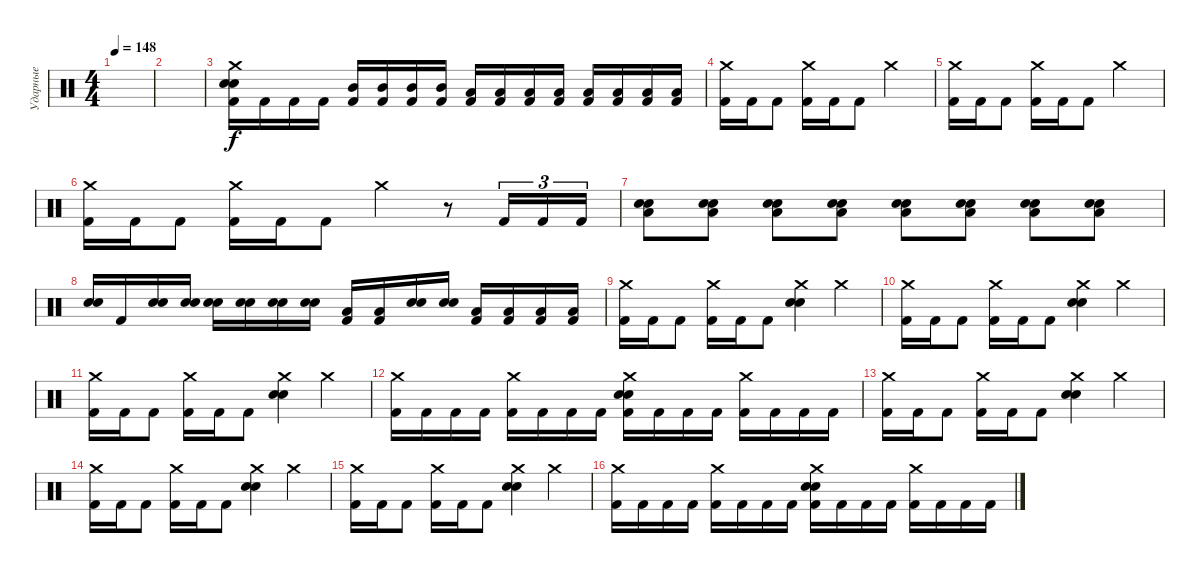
\track ("Ударные" "Ударные") {instrument percussion}
\staff {score}
\articulation defaults
\ts (4 4)
\tempo 148
\clef neutral
\ks c
|
|
("Crash medium (hit)" "Snare (hit) 2" "Electric Snare (hit)" "Kick (hit) 2").16 "Kick (hit) 2".16 "Kick (hit) 2".16 "Kick (hit) 2".16 ("Mid Tom (hit)" "Kick (hit) 2").16 ("Mid Tom (hit)" "Kick (hit) 2").16 ("Mid Tom (hit)" "Kick (hit) 2").16 ("Mid Tom (hit)" "Kick (hit) 2").16 ("Low Tom (hit)" "Kick (hit) 2").16 ("Low Tom (hit)" "Kick (hit) 2").16 ("Low Tom (hit)" "Kick (hit) 2").16 ("Low Tom (hit)" "Kick (hit) 2").16 ("Low Floor Tom (hit)" "Kick (hit) 2").16 ("Low Floor Tom (hit)" "Kick (hit) 2").16 ("Low Floor Tom (hit)" "Kick (hit) 2").16 ("Low Floor Tom (hit)" "Kick (hit) 2").16 |
("Crash medium (hit)" "Kick (hit) 2").16 "Kick (hit) 2".16 "Kick (hit) 2".8 ("Crash medium (hit)" "Kick (hit) 2").16 "Kick (hit) 2".16 "Kick (hit) 2".8 "Crash medium (hit)".2 |
("Crash medium (hit)" "Kick (hit) 2").16 "Kick (hit) 2".16 "Kick (hit) 2".8 ("Crash medium (hit)" "Kick (hit) 2").16 "Kick (hit) 2".16 "Kick (hit) 2".8 "Crash medium (hit)".2 |
("Crash medium (hit)" "Kick (hit) 2").16 "Kick (hit) 2".16 "Kick (hit) 2".8 ("Crash medium (hit)" "Kick (hit) 2").16 "Kick (hit) 2".16 "Kick (hit) 2".8 "Crash medium (hit)".4 r.8 "Kick (hit) 2".16{tu (3 2)} "Kick (hit) 2".16{tu (3 2)} "Kick (hit) 2".16{tu (3 2)} |
("Snare (hit) 2" "Low Floor Tom (hit)" "Electric Snare (hit)").8 ("Snare (hit) 2" "Low Floor Tom (hit)" "Electric Snare (hit)").8 ("Snare (hit) 2" "Low Floor Tom (hit)" "Electric Snare (hit)").8 ("Snare (hit) 2" "Low Floor Tom (hit)" "Electric Snare (hit)").8 ("Snare (hit) 2" "Low Floor Tom (hit)" "Electric Snare (hit)").8 ("Snare (hit) 2" "Low Floor Tom (hit)" "Electric Snare (hit)").8 ("Snare (hit) 2" "Low Floor Tom (hit)" "Electric Snare (hit)").8 ("Snare (hit) 2" "Low Floor Tom (hit)" "Electric Snare (hit)").8 |
("Electric Snare (hit)" "Snare (hit) 2").16 "Kick (hit) 2".16 ("Electric Snare (hit)" "Snare (hit) 2").16 ("Electric Snare (hit)" "Snare (hit) 2").16 ("Electric Snare (hit)" "Snare (hit) 2").16 ("Electric Snare (hit)" "Snare (hit) 2").16 ("Electric Snare (hit)" "Snare (hit) 2").16 ("Electric Snare (hit)" "Snare (hit) 2").16 ("Low Tom (hit)" "Kick (hit) 2").16 ("Low Tom (hit)" "Kick (hit) 2").16 ("Electric Snare (hit)" "Snare (hit) 2").16 ("Electric Snare (hit)" "Snare (hit) 2").16 ("Low Tom (hit)" "Kick (hit) 2").16 ("Low Tom (hit)" "Kick (hit) 2").16 ("Low Tom (hit)" "Kick (hit) 2").16 ("Low Tom (hit)" "Kick (hit) 2").16 |
("Crash medium (hit)" "Kick (hit) 2").16 "Kick (hit) 2".16 "Kick (hit) 2".8 ("Crash medium (hit)" "Kick (hit) 2").16 "Kick (hit) 2".16 "Kick (hit) 2".8 ("Crash medium (hit)" "Electric Snare (hit)" "Snare (hit) 2").4 "Crash medium (hit)".4 |
("Crash medium (hit)" "Kick (hit) 2").16 "Kick (hit) 2".16 "Kick (hit) 2".8 ("Crash medium (hit)" "Kick (hit) 2").16 "Kick (hit) 2".16 "Kick (hit) 2".8 ("Crash medium (hit)" "Electric Snare (hit)" "Snare (hit) 2").4 "Crash medium (hit)".4 |
("Crash medium (hit)" "Kick (hit) 2").16 "Kick (hit) 2".16 "Kick (hit) 2".8 ("Crash medium (hit)" "Kick (hit) 2").16 "Kick (hit) 2".16 "Kick (hit) 2".8 ("Crash medium (hit)" "Electric Snare (hit)" "Snare (hit) 2").4 "Crash medium (hit)".4 |
("Crash medium (hit)" "Kick (hit) 2").16 "Kick (hit) 2".16 "Kick (hit) 2".16 "Kick (hit) 2".16 ("Crash medium (hit)" "Kick (hit) 2").16 "Kick (hit) 2".16 "Kick (hit) 2".16 "Kick (hit) 2".16 ("Crash medium (hit)" "Snare (hit) 2" "Electric Snare (hit)" "Kick (hit) 2").16 "Kick (hit) 2".16 "Kick (hit) 2".16 "Kick (hit) 2".16 ("Crash medium (hit)" "Kick (hit) 2").16 "Kick (hit) 2".16 "Kick (hit) 2".16 "Kick (hit) 2".16 |
("Crash medium (hit)" "Kick (hit) 2").16 "Kick (hit) 2".16 "Kick (hit) 2".8 ("Crash medium (hit)" "Kick (hit) 2").16 "Kick (hit) 2".16 "Kick (hit) 2".8 ("Crash medium (hit)" "Electric Snare (hit)" "Snare (hit) 2").4 "Crash medium (hit)".4 |
("Crash medium (hit)" "Kick (hit) 2").16 "Kick (hit) 2".16 "Kick (hit) 2".8 ("Crash medium (hit)" "Kick (hit) 2").16 "Kick (hit) 2".16 "Kick (hit) 2".8 ("Crash medium (hit)" "Electric Snare (hit)" "Snare (hit) 2").4 "Crash medium (hit)".4 |
("Crash medium (hit)" "Kick (hit) 2").16 "Kick (hit) 2".16 "Kick (hit) 2".8 ("Crash medium (hit)" "Kick (hit) 2").16 "Kick (hit) 2".16 "Kick (hit) 2".8 ("Crash medium (hit)" "Electric Snare (hit)" "Snare (hit) 2").4 "Crash medium (hit)".4 |
("Crash medium (hit)" "Kick (hit) 2").16 "Kick (hit) 2".16 "Kick (hit) 2".16 "Kick (hit) 2".16 ("Crash medium (hit)" "Kick (hit) 2").16 "Kick (hit) 2".16 "Kick (hit) 2".16 "Kick (hit) 2".16 ("Crash medium (hit)" "Snare (hit) 2" "Electric Snare (hit)" "Kick (hit) 2").16 "Kick (hit) 2".16 "Kick (hit) 2".16 "Kick (hit) 2".16 ("Crash medium (hit)" "Kick (hit) 2").16 "Kick (hit) 2".16 "Kick (hit) 2".16 "Kick (hit) 2".16
